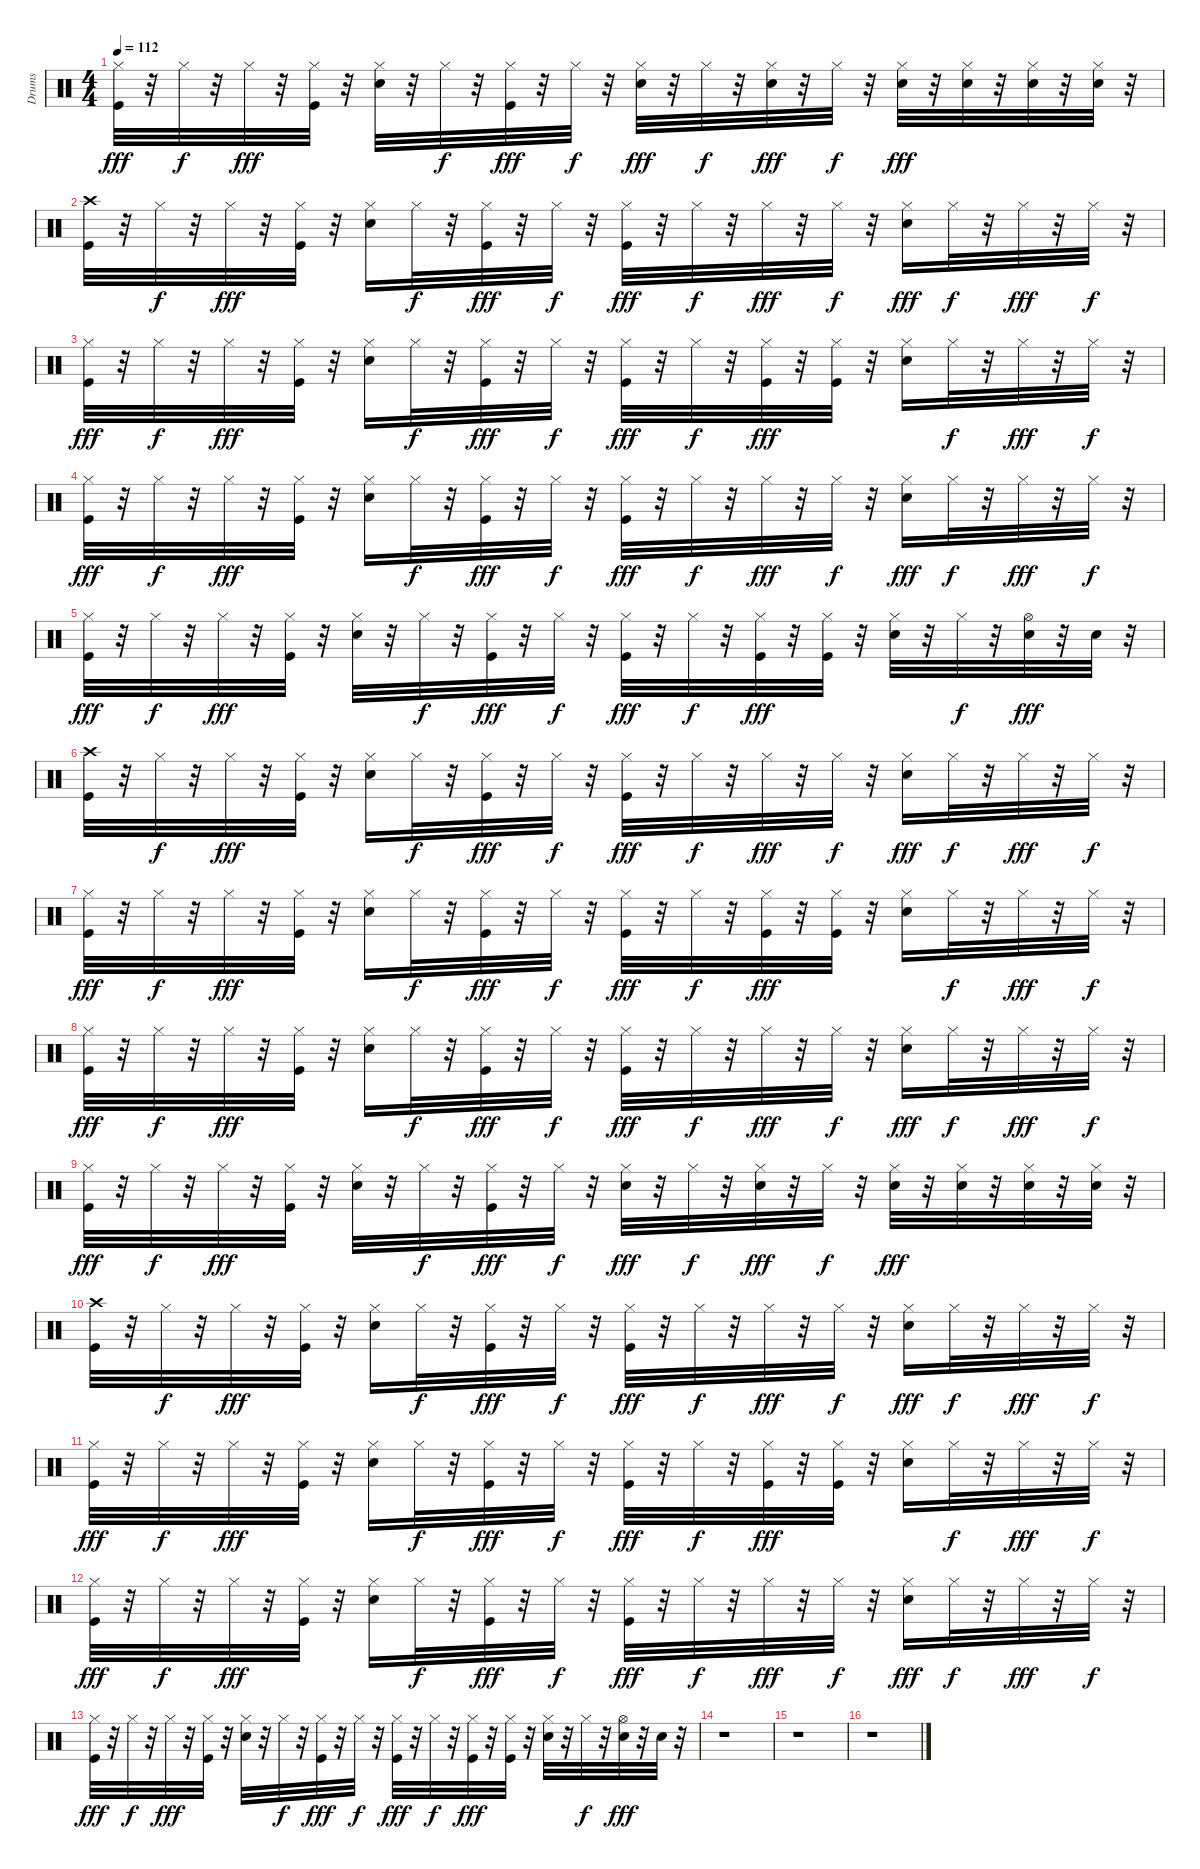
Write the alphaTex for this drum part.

\track ("Drums" "Drums") {instrument percussion}
\staff {score}
\articulation defaults
\ts (4 4)
\tempo 112
\clef neutral
\ks c
("Kick (hit)" "Hi-Hat (closed)").32{dy fff} r.32 "Hi-Hat (closed)".32{dy f} r.32 "Hi-Hat (closed)".32{dy fff} r.32 ("Kick (hit)" "Hi-Hat (closed)").32 r.32 ("Snare (hit) 2" "Hi-Hat (closed)").32 r.32 "Hi-Hat (closed)".32{dy f} r.32 ("Kick (hit)" "Hi-Hat (closed)").32{dy fff} r.32 "Hi-Hat (closed)".32{dy f} r.32 ("Snare (hit) 2" "Hi-Hat (closed)").32{dy fff} r.32 "Hi-Hat (closed)".32{dy f} r.32 ("Snare (hit) 2" "Hi-Hat (closed)").32{dy fff} r.32 "Hi-Hat (closed)".32{dy f} r.32 ("Snare (hit) 2" "Hi-Hat (closed)").32{dy fff} r.32 ("Snare (hit) 2" "Hi-Hat (closed)").32 r.32 ("Snare (hit) 2" "Hi-Hat (closed)").32 r.32 ("Snare (hit) 2" "Hi-Hat (closed)").32 r.32 |
("Kick (hit)" "Crash high (hit)").32 r.32 "Hi-Hat (closed)".32{dy f} r.32 "Hi-Hat (closed)".32{dy fff} r.32 ("Kick (hit)" "Hi-Hat (closed)").32 r.32 ("Snare (hit) 2" "Hi-Hat (closed)").16 "Hi-Hat (closed)".32{dy f} r.32 ("Kick (hit)" "Hi-Hat (closed)").32{dy fff} r.32 "Hi-Hat (closed)".32{dy f} r.32 ("Kick (hit)" "Hi-Hat (closed)").32{dy fff} r.32 "Hi-Hat (closed)".32{dy f} r.32 "Hi-Hat (closed)".32{dy fff} r.32 "Hi-Hat (closed)".32{dy f} r.32 ("Snare (hit) 2" "Hi-Hat (closed)").16{dy fff} "Hi-Hat (closed)".32{dy f} r.32 "Hi-Hat (closed)".32{dy fff} r.32 "Hi-Hat (closed)".32{dy f} r.32 |
("Kick (hit)" "Hi-Hat (closed)").32{dy fff} r.32 "Hi-Hat (closed)".32{dy f} r.32 "Hi-Hat (closed)".32{dy fff} r.32 ("Kick (hit)" "Hi-Hat (closed)").32 r.32 ("Snare (hit) 2" "Hi-Hat (closed)").16 "Hi-Hat (closed)".32{dy f} r.32 ("Kick (hit)" "Hi-Hat (closed)").32{dy fff} r.32 "Hi-Hat (closed)".32{dy f} r.32 ("Kick (hit)" "Hi-Hat (closed)").32{dy fff} r.32 "Hi-Hat (closed)".32{dy f} r.32 ("Kick (hit)" "Hi-Hat (closed)").32{dy fff} r.32 ("Kick (hit)" "Hi-Hat (closed)").32 r.32 ("Snare (hit) 2" "Hi-Hat (closed)").16 "Hi-Hat (closed)".32{dy f} r.32 "Hi-Hat (closed)".32{dy fff} r.32 "Hi-Hat (closed)".32{dy f} r.32 |
("Kick (hit)" "Hi-Hat (closed)").32{dy fff} r.32 "Hi-Hat (closed)".32{dy f} r.32 "Hi-Hat (closed)".32{dy fff} r.32 ("Kick (hit)" "Hi-Hat (closed)").32 r.32 ("Snare (hit) 2" "Hi-Hat (closed)").16 "Hi-Hat (closed)".32{dy f} r.32 ("Kick (hit)" "Hi-Hat (closed)").32{dy fff} r.32 "Hi-Hat (closed)".32{dy f} r.32 ("Kick (hit)" "Hi-Hat (closed)").32{dy fff} r.32 "Hi-Hat (closed)".32{dy f} r.32 "Hi-Hat (closed)".32{dy fff} r.32 "Hi-Hat (closed)".32{dy f} r.32 ("Snare (hit) 2" "Hi-Hat (closed)").16{dy fff} "Hi-Hat (closed)".32{dy f} r.32 "Hi-Hat (closed)".32{dy fff} r.32 "Hi-Hat (closed)".32{dy f} r.32 |
("Kick (hit)" "Hi-Hat (closed)").32{dy fff} r.32 "Hi-Hat (closed)".32{dy f} r.32 "Hi-Hat (closed)".32{dy fff} r.32 ("Kick (hit)" "Hi-Hat (closed)").32 r.32 ("Snare (hit) 2" "Hi-Hat (closed)").32 r.32 "Hi-Hat (closed)".32{dy f} r.32 ("Kick (hit)" "Hi-Hat (closed)").32{dy fff} r.32 "Hi-Hat (closed)".32{dy f} r.32 ("Kick (hit)" "Hi-Hat (closed)").32{dy fff} r.32 "Hi-Hat (closed)".32{dy f} r.32 ("Kick (hit)" "Hi-Hat (closed)").32{dy fff} r.32 ("Kick (hit)" "Hi-Hat (closed)").32 r.32 ("Snare (hit) 2" "Hi-Hat (closed)").32 r.32 "Hi-Hat (closed)".32{dy f} r.32 ("Snare (hit) 2" "Hi-Hat (open)").32{dy fff} r.32 "Snare (hit) 2".32 r.32 |
("Kick (hit)" "Crash high (hit)").32 r.32 "Hi-Hat (closed)".32{dy f} r.32 "Hi-Hat (closed)".32{dy fff} r.32 ("Kick (hit)" "Hi-Hat (closed)").32 r.32 ("Snare (hit) 2" "Hi-Hat (closed)").16 "Hi-Hat (closed)".32{dy f} r.32 ("Kick (hit)" "Hi-Hat (closed)").32{dy fff} r.32 "Hi-Hat (closed)".32{dy f} r.32 ("Kick (hit)" "Hi-Hat (closed)").32{dy fff} r.32 "Hi-Hat (closed)".32{dy f} r.32 "Hi-Hat (closed)".32{dy fff} r.32 "Hi-Hat (closed)".32{dy f} r.32 ("Snare (hit) 2" "Hi-Hat (closed)").16{dy fff} "Hi-Hat (closed)".32{dy f} r.32 "Hi-Hat (closed)".32{dy fff} r.32 "Hi-Hat (closed)".32{dy f} r.32 |
("Kick (hit)" "Hi-Hat (closed)").32{dy fff} r.32 "Hi-Hat (closed)".32{dy f} r.32 "Hi-Hat (closed)".32{dy fff} r.32 ("Kick (hit)" "Hi-Hat (closed)").32 r.32 ("Snare (hit) 2" "Hi-Hat (closed)").16 "Hi-Hat (closed)".32{dy f} r.32 ("Kick (hit)" "Hi-Hat (closed)").32{dy fff} r.32 "Hi-Hat (closed)".32{dy f} r.32 ("Kick (hit)" "Hi-Hat (closed)").32{dy fff} r.32 "Hi-Hat (closed)".32{dy f} r.32 ("Kick (hit)" "Hi-Hat (closed)").32{dy fff} r.32 ("Kick (hit)" "Hi-Hat (closed)").32 r.32 ("Snare (hit) 2" "Hi-Hat (closed)").16 "Hi-Hat (closed)".32{dy f} r.32 "Hi-Hat (closed)".32{dy fff} r.32 "Hi-Hat (closed)".32{dy f} r.32 |
("Kick (hit)" "Hi-Hat (closed)").32{dy fff} r.32 "Hi-Hat (closed)".32{dy f} r.32 "Hi-Hat (closed)".32{dy fff} r.32 ("Kick (hit)" "Hi-Hat (closed)").32 r.32 ("Snare (hit) 2" "Hi-Hat (closed)").16 "Hi-Hat (closed)".32{dy f} r.32 ("Kick (hit)" "Hi-Hat (closed)").32{dy fff} r.32 "Hi-Hat (closed)".32{dy f} r.32 ("Kick (hit)" "Hi-Hat (closed)").32{dy fff} r.32 "Hi-Hat (closed)".32{dy f} r.32 "Hi-Hat (closed)".32{dy fff} r.32 "Hi-Hat (closed)".32{dy f} r.32 ("Snare (hit) 2" "Hi-Hat (closed)").16{dy fff} "Hi-Hat (closed)".32{dy f} r.32 "Hi-Hat (closed)".32{dy fff} r.32 "Hi-Hat (closed)".32{dy f} r.32 |
("Kick (hit)" "Hi-Hat (closed)").32{dy fff} r.32 "Hi-Hat (closed)".32{dy f} r.32 "Hi-Hat (closed)".32{dy fff} r.32 ("Kick (hit)" "Hi-Hat (closed)").32 r.32 ("Snare (hit) 2" "Hi-Hat (closed)").32 r.32 "Hi-Hat (closed)".32{dy f} r.32 ("Kick (hit)" "Hi-Hat (closed)").32{dy fff} r.32 "Hi-Hat (closed)".32{dy f} r.32 ("Snare (hit) 2" "Hi-Hat (closed)").32{dy fff} r.32 "Hi-Hat (closed)".32{dy f} r.32 ("Snare (hit) 2" "Hi-Hat (closed)").32{dy fff} r.32 "Hi-Hat (closed)".32{dy f} r.32 ("Snare (hit) 2" "Hi-Hat (closed)").32{dy fff} r.32 ("Snare (hit) 2" "Hi-Hat (closed)").32 r.32 ("Snare (hit) 2" "Hi-Hat (closed)").32 r.32 ("Snare (hit) 2" "Hi-Hat (closed)").32 r.32 |
("Kick (hit)" "Crash high (hit)").32 r.32 "Hi-Hat (closed)".32{dy f} r.32 "Hi-Hat (closed)".32{dy fff} r.32 ("Kick (hit)" "Hi-Hat (closed)").32 r.32 ("Snare (hit) 2" "Hi-Hat (closed)").16 "Hi-Hat (closed)".32{dy f} r.32 ("Kick (hit)" "Hi-Hat (closed)").32{dy fff} r.32 "Hi-Hat (closed)".32{dy f} r.32 ("Kick (hit)" "Hi-Hat (closed)").32{dy fff} r.32 "Hi-Hat (closed)".32{dy f} r.32 "Hi-Hat (closed)".32{dy fff} r.32 "Hi-Hat (closed)".32{dy f} r.32 ("Snare (hit) 2" "Hi-Hat (closed)").16{dy fff} "Hi-Hat (closed)".32{dy f} r.32 "Hi-Hat (closed)".32{dy fff} r.32 "Hi-Hat (closed)".32{dy f} r.32 |
("Kick (hit)" "Hi-Hat (closed)").32{dy fff} r.32 "Hi-Hat (closed)".32{dy f} r.32 "Hi-Hat (closed)".32{dy fff} r.32 ("Kick (hit)" "Hi-Hat (closed)").32 r.32 ("Snare (hit) 2" "Hi-Hat (closed)").16 "Hi-Hat (closed)".32{dy f} r.32 ("Kick (hit)" "Hi-Hat (closed)").32{dy fff} r.32 "Hi-Hat (closed)".32{dy f} r.32 ("Kick (hit)" "Hi-Hat (closed)").32{dy fff} r.32 "Hi-Hat (closed)".32{dy f} r.32 ("Kick (hit)" "Hi-Hat (closed)").32{dy fff} r.32 ("Kick (hit)" "Hi-Hat (closed)").32 r.32 ("Snare (hit) 2" "Hi-Hat (closed)").16 "Hi-Hat (closed)".32{dy f} r.32 "Hi-Hat (closed)".32{dy fff} r.32 "Hi-Hat (closed)".32{dy f} r.32 |
("Kick (hit)" "Hi-Hat (closed)").32{dy fff} r.32 "Hi-Hat (closed)".32{dy f} r.32 "Hi-Hat (closed)".32{dy fff} r.32 ("Kick (hit)" "Hi-Hat (closed)").32 r.32 ("Snare (hit) 2" "Hi-Hat (closed)").16 "Hi-Hat (closed)".32{dy f} r.32 ("Kick (hit)" "Hi-Hat (closed)").32{dy fff} r.32 "Hi-Hat (closed)".32{dy f} r.32 ("Kick (hit)" "Hi-Hat (closed)").32{dy fff} r.32 "Hi-Hat (closed)".32{dy f} r.32 "Hi-Hat (closed)".32{dy fff} r.32 "Hi-Hat (closed)".32{dy f} r.32 ("Snare (hit) 2" "Hi-Hat (closed)").16{dy fff} "Hi-Hat (closed)".32{dy f} r.32 "Hi-Hat (closed)".32{dy fff} r.32 "Hi-Hat (closed)".32{dy f} r.32 |
("Kick (hit)" "Hi-Hat (closed)").32{dy fff} r.32 "Hi-Hat (closed)".32{dy f} r.32 "Hi-Hat (closed)".32{dy fff} r.32 ("Kick (hit)" "Hi-Hat (closed)").32 r.32 ("Snare (hit) 2" "Hi-Hat (closed)").32 r.32 "Hi-Hat (closed)".32{dy f} r.32 ("Kick (hit)" "Hi-Hat (closed)").32{dy fff} r.32 "Hi-Hat (closed)".32{dy f} r.32 ("Kick (hit)" "Hi-Hat (closed)").32{dy fff} r.32 "Hi-Hat (closed)".32{dy f} r.32 ("Kick (hit)" "Hi-Hat (closed)").32{dy fff} r.32 ("Kick (hit)" "Hi-Hat (closed)").32 r.32 ("Snare (hit) 2" "Hi-Hat (closed)").32 r.32 "Hi-Hat (closed)".32{dy f} r.32 ("Snare (hit) 2" "Hi-Hat (open)").32{dy fff} r.32 "Snare (hit) 2".32 r.32 |
r.1 |
r.1 |
r.1
